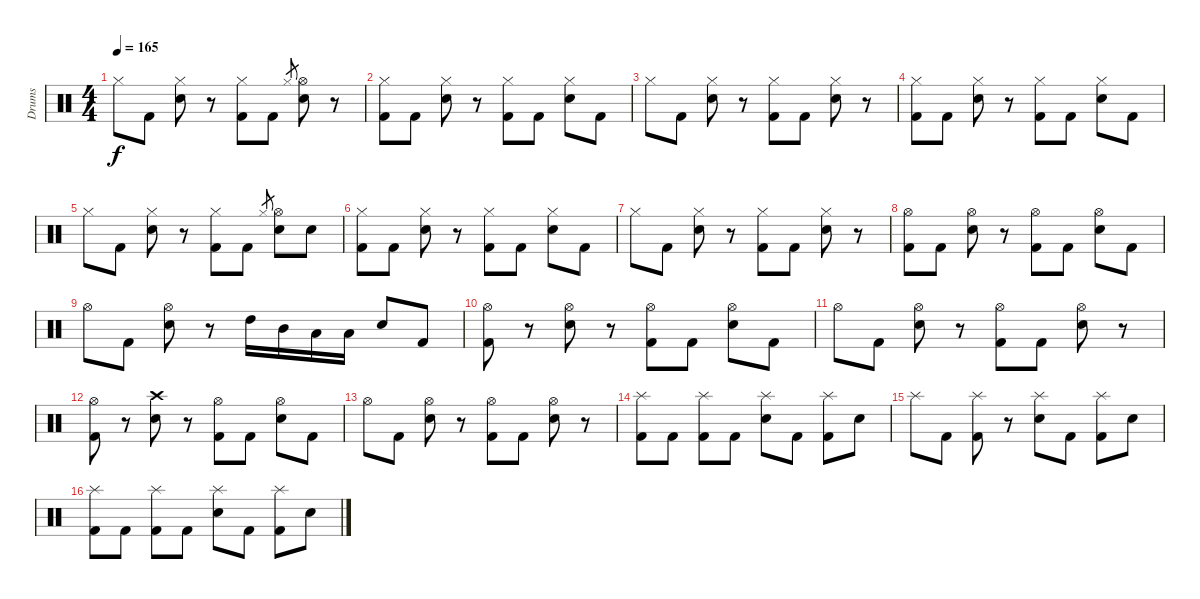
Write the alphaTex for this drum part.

\track ("Drums" "Drums") {instrument percussion}
\staff {score}
\articulation defaults
\ts (4 4)
\tempo 165
\clef neutral
\ks c "Hi-Hat (closed)".8{dy f} "Kick (hit) 2".8
("Hi-Hat (closed)" "Electric Snare (hit)").8 r.8 ("Hi-Hat (closed)" "Kick (hit) 2").8 "Kick (hit) 2".8 "Hi-Hat (closed)".8{gr} ("Hi-Hat (open)" "Electric Snare (hit)").8 r.8 |
("Hi-Hat (closed)" "Kick (hit) 2").8 "Kick (hit) 2".8 ("Hi-Hat (closed)" "Electric Snare (hit)").8 r.8 ("Hi-Hat (closed)" "Kick (hit) 2").8 "Kick (hit) 2".8 ("Hi-Hat (closed)" "Electric Snare (hit)").8 "Kick (hit) 2".8 |
"Hi-Hat (closed)".8 "Kick (hit) 2".8 ("Hi-Hat (closed)" "Electric Snare (hit)").8 r.8 ("Hi-Hat (closed)" "Kick (hit) 2").8 "Kick (hit) 2".8 ("Hi-Hat (closed)" "Electric Snare (hit)").8 r.8 |
("Hi-Hat (closed)" "Kick (hit) 2").8 "Kick (hit) 2".8 ("Hi-Hat (closed)" "Electric Snare (hit)").8 r.8 ("Hi-Hat (closed)" "Kick (hit) 2").8 "Kick (hit) 2".8 ("Hi-Hat (closed)" "Electric Snare (hit)").8 "Kick (hit) 2".8 |
"Hi-Hat (closed)".8 "Kick (hit) 2".8 ("Hi-Hat (closed)" "Electric Snare (hit)").8 r.8 ("Hi-Hat (closed)" "Kick (hit) 2").8 "Kick (hit) 2".8 "Hi-Hat (closed)".8{gr} ("Hi-Hat (open)" "Electric Snare (hit)").8 "Electric Snare (hit)".8 |
("Hi-Hat (closed)" "Kick (hit) 2").8 "Kick (hit) 2".8 ("Hi-Hat (closed)" "Electric Snare (hit)").8 r.8 ("Hi-Hat (closed)" "Kick (hit) 2").8 "Kick (hit) 2".8 ("Hi-Hat (closed)" "Electric Snare (hit)").8 "Kick (hit) 2".8 |
"Hi-Hat (closed)".8 "Kick (hit) 2".8 ("Hi-Hat (closed)" "Electric Snare (hit)").8 r.8 ("Hi-Hat (closed)" "Kick (hit) 2").8 "Kick (hit) 2".8 ("Hi-Hat (closed)" "Electric Snare (hit)").8 r.8 |
("Hi-Hat (open)" "Kick (hit) 2").8 "Kick (hit) 2".8 ("Hi-Hat (open)" "Electric Snare (hit)").8 r.8 ("Hi-Hat (open)" "Kick (hit) 2").8 "Kick (hit) 2".8 ("Hi-Hat (open)" "Electric Snare (hit)").8 "Kick (hit) 2".8 |
"Hi-Hat (open)".8 "Kick (hit) 2".8 ("Hi-Hat (open)" "Electric Snare (hit)").8 r.8 "High Tom (hit)".16 "Mid Tom (hit)".16 "Low Tom (hit)".16 "Low Tom (hit)".16 "Electric Snare (hit)".8 "Kick (hit) 2".8 |
("Hi-Hat (open)" "Kick (hit) 2").8 r.8 ("Hi-Hat (open)" "Electric Snare (hit)").8 r.8 ("Hi-Hat (open)" "Kick (hit) 2").8 "Kick (hit) 2".8 ("Hi-Hat (open)" "Electric Snare (hit)").8 "Kick (hit) 2".8 |
"Hi-Hat (open)".8 "Kick (hit) 2".8 ("Hi-Hat (open)" "Electric Snare (hit)").8 r.8 ("Hi-Hat (open)" "Kick (hit) 2").8 "Kick (hit) 2".8 ("Hi-Hat (open)" "Electric Snare (hit)").8 r.8 |
("Hi-Hat (open)" "Kick (hit) 2").8 r.8 ("Crash high (hit)" "Electric Snare (hit)").8 r.8 ("Hi-Hat (open)" "Kick (hit) 2").8 "Kick (hit) 2".8 ("Hi-Hat (open)" "Electric Snare (hit)").8 "Kick (hit) 2".8 |
"Hi-Hat (open)".8 "Kick (hit) 2".8 ("Hi-Hat (open)" "Electric Snare (hit)").8 r.8 ("Hi-Hat (open)" "Kick (hit) 2").8 "Kick (hit) 2".8 ("Hi-Hat (open)" "Electric Snare (hit)").8 r.8 |
("Splash (hit)" "Kick (hit) 2").8 "Kick (hit) 2".8 ("Splash (hit)" "Kick (hit) 2").8 "Kick (hit) 2".8 ("Splash (hit)" "Electric Snare (hit)").8 "Kick (hit) 2".8 ("Splash (hit)" "Kick (hit) 2").8 "Electric Snare (hit)".8 |
"Splash (hit)".8 "Kick (hit) 2".8 ("Splash (hit)" "Kick (hit) 2").8 r.8 ("Splash (hit)" "Electric Snare (hit)").8 "Kick (hit) 2".8 ("Splash (hit)" "Kick (hit) 2").8 "Electric Snare (hit)".8 |
("Splash (hit)" "Kick (hit) 2").8 "Kick (hit) 2".8 ("Splash (hit)" "Kick (hit) 2").8 "Kick (hit) 2".8 ("Splash (hit)" "Electric Snare (hit)").8 "Kick (hit) 2".8 ("Splash (hit)" "Kick (hit) 2").8 "Electric Snare (hit)".8
